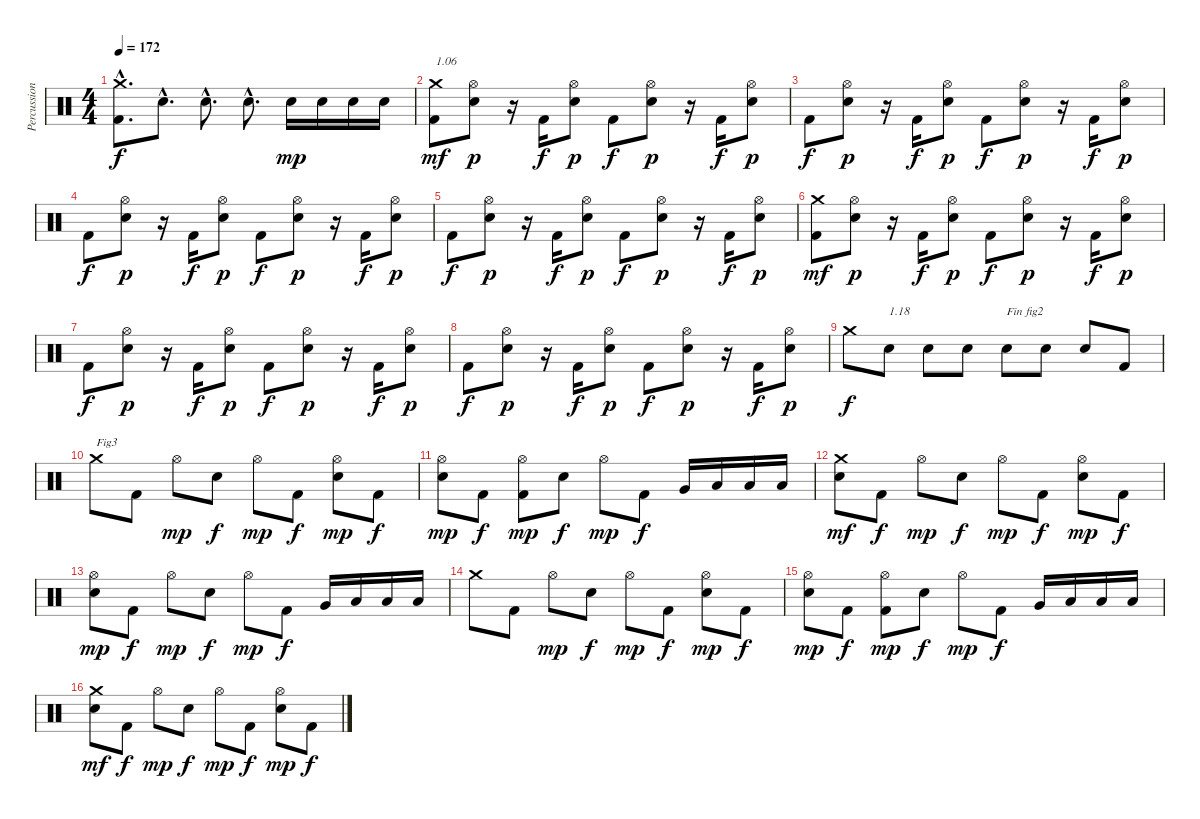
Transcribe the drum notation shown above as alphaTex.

\track ("Percussions" "Percussion") {instrument percussion}
\staff {score}
\articulation defaults
\ts (4 4)
\tempo 172
\clef neutral
\ks c
("Kick (hit) 2"{hac} "Crash medium (hit)"{hac}).8{d dy f} "Electric Snare (hit)"{hac}.8{d} "Electric Snare (hit)"{hac}.8{d} "Electric Snare (hit)"{hac}.8{d} "Electric Snare (hit)".16{dy mp} "Electric Snare (hit)".16 "Electric Snare (hit)".16 "Electric Snare (hit)".16 |
("Kick (hit) 2" "Crash medium (hit)").8{txt "1.06" dy mf} ("Electric Snare (hit)" "Hi-Hat (open)").8{dy p} r.16 "Kick (hit) 2".16{dy f} ("Electric Snare (hit)" "Hi-Hat (open)").8{dy p} "Kick (hit) 2".8{dy f} ("Electric Snare (hit)" "Hi-Hat (open)").8{dy p} r.16 "Kick (hit) 2".16{dy f} ("Electric Snare (hit)" "Hi-Hat (open)").8{dy p} |
"Kick (hit) 2".8{dy f} ("Electric Snare (hit)" "Hi-Hat (open)").8{dy p} r.16 "Kick (hit) 2".16{dy f} ("Electric Snare (hit)" "Hi-Hat (open)").8{dy p} "Kick (hit) 2".8{dy f} ("Electric Snare (hit)" "Hi-Hat (open)").8{dy p} r.16 "Kick (hit) 2".16{dy f} ("Electric Snare (hit)" "Hi-Hat (open)").8{dy p} |
"Kick (hit) 2".8{dy f} ("Electric Snare (hit)" "Hi-Hat (open)").8{dy p} r.16 "Kick (hit) 2".16{dy f} ("Electric Snare (hit)" "Hi-Hat (open)").8{dy p} "Kick (hit) 2".8{dy f} ("Electric Snare (hit)" "Hi-Hat (open)").8{dy p} r.16 "Kick (hit) 2".16{dy f} ("Electric Snare (hit)" "Hi-Hat (open)").8{dy p} |
"Kick (hit) 2".8{dy f} ("Electric Snare (hit)" "Hi-Hat (open)").8{dy p} r.16 "Kick (hit) 2".16{dy f} ("Electric Snare (hit)" "Hi-Hat (open)").8{dy p} "Kick (hit) 2".8{dy f} ("Electric Snare (hit)" "Hi-Hat (open)").8{dy p} r.16 "Kick (hit) 2".16{dy f} ("Electric Snare (hit)" "Hi-Hat (open)").8{dy p} |
("Kick (hit) 2" "Crash medium (hit)").8{dy mf} ("Electric Snare (hit)" "Hi-Hat (open)").8{dy p} r.16 "Kick (hit) 2".16{dy f} ("Electric Snare (hit)" "Hi-Hat (open)").8{dy p} "Kick (hit) 2".8{dy f} ("Electric Snare (hit)" "Hi-Hat (open)").8{dy p} r.16 "Kick (hit) 2".16{dy f} ("Electric Snare (hit)" "Hi-Hat (open)").8{dy p} |
"Kick (hit) 2".8{dy f} ("Electric Snare (hit)" "Hi-Hat (open)").8{dy p} r.16 "Kick (hit) 2".16{dy f} ("Electric Snare (hit)" "Hi-Hat (open)").8{dy p} "Kick (hit) 2".8{dy f} ("Electric Snare (hit)" "Hi-Hat (open)").8{dy p} r.16 "Kick (hit) 2".16{dy f} ("Electric Snare (hit)" "Hi-Hat (open)").8{dy p} |
"Kick (hit) 2".8{dy f} ("Electric Snare (hit)" "Hi-Hat (open)").8{dy p} r.16 "Kick (hit) 2".16{dy f} ("Electric Snare (hit)" "Hi-Hat (open)").8{dy p} "Kick (hit) 2".8{dy f} ("Electric Snare (hit)" "Hi-Hat (open)").8{dy p} r.16 "Kick (hit) 2".16{dy f} ("Electric Snare (hit)" "Hi-Hat (open)").8{dy p} |
"Crash medium (hit)".8{dy f} "Electric Snare (hit)".8{txt "1.18"} "Electric Snare (hit)".8 "Electric Snare (hit)".8 "Electric Snare (hit)".8{txt "Fin fig2"} "Electric Snare (hit)".8 "Electric Snare (hit)".8 "Kick (hit) 2".8 |
"Crash medium (hit)".8{txt "Fig3"} "Kick (hit) 2".8 "Hi-Hat (open)".8{dy mp} "Electric Snare (hit)".8{dy f} "Hi-Hat (open)".8{dy mp} "Kick (hit) 2".8{dy f} ("Electric Snare (hit)" "Hi-Hat (open)").8{dy mp} "Kick (hit) 2".8{dy f} |
("Electric Snare (hit)" "Hi-Hat (open)").8{dy mp} "Kick (hit) 2".8{dy f} ("Kick (hit) 2" "Hi-Hat (open)").8{dy mp} "Electric Snare (hit)".8{dy f} "Hi-Hat (open)".8{dy mp} "Kick (hit) 2".8{dy f} "Very Low Tom (hit)".16 "Low Floor Tom (hit)".16 "Low Floor Tom (hit)".16 "Low Floor Tom (hit)".16 |
("Electric Snare (hit)" "Crash medium (hit)").8{dy mf} "Kick (hit) 2".8{dy f} "Hi-Hat (open)".8{dy mp} "Electric Snare (hit)".8{dy f} "Hi-Hat (open)".8{dy mp} "Kick (hit) 2".8{dy f} ("Electric Snare (hit)" "Hi-Hat (open)").8{dy mp} "Kick (hit) 2".8{dy f} |
("Electric Snare (hit)" "Hi-Hat (open)").8{dy mp} "Kick (hit) 2".8{dy f} "Hi-Hat (open)".8{dy mp} "Electric Snare (hit)".8{dy f} "Hi-Hat (open)".8{dy mp} "Kick (hit) 2".8{dy f} "Very Low Tom (hit)".16 "Low Floor Tom (hit)".16 "Low Floor Tom (hit)".16 "Low Floor Tom (hit)".16 |
"Crash medium (hit)".8 "Kick (hit) 2".8 "Hi-Hat (open)".8{dy mp} "Electric Snare (hit)".8{dy f} "Hi-Hat (open)".8{dy mp} "Kick (hit) 2".8{dy f} ("Electric Snare (hit)" "Hi-Hat (open)").8{dy mp} "Kick (hit) 2".8{dy f} |
("Electric Snare (hit)" "Hi-Hat (open)").8{dy mp} "Kick (hit) 2".8{dy f} ("Kick (hit) 2" "Hi-Hat (open)").8{dy mp} "Electric Snare (hit)".8{dy f} "Hi-Hat (open)".8{dy mp} "Kick (hit) 2".8{dy f} "Very Low Tom (hit)".16 "Low Floor Tom (hit)".16 "Low Floor Tom (hit)".16 "Low Floor Tom (hit)".16 |
("Electric Snare (hit)" "Crash medium (hit)").8{dy mf} "Kick (hit) 2".8{dy f} "Hi-Hat (open)".8{dy mp} "Electric Snare (hit)".8{dy f} "Hi-Hat (open)".8{dy mp} "Kick (hit) 2".8{dy f} ("Electric Snare (hit)" "Hi-Hat (open)").8{dy mp} "Kick (hit) 2".8{dy f}
